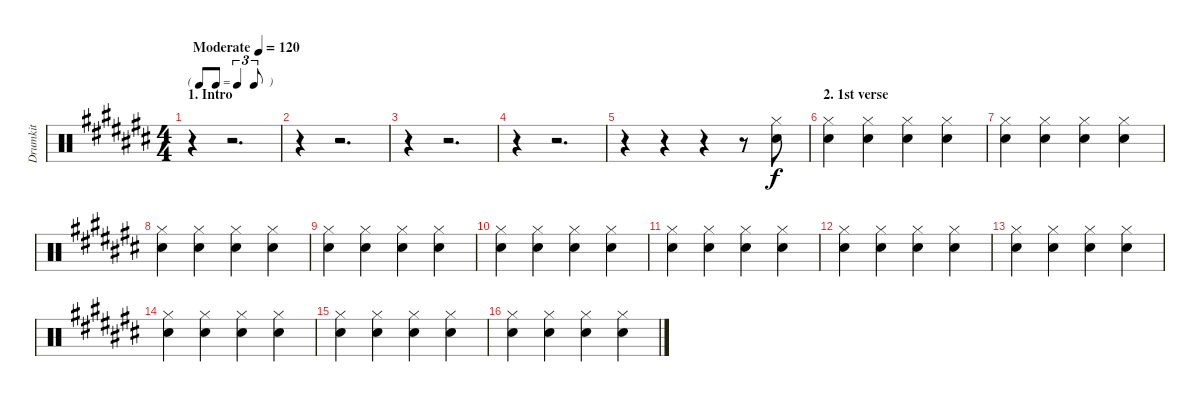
\track ("Drumkit" "Drumkit") {instrument percussion}
\staff {score}
\articulation defaults
\ts (4 4)
\tf triplet8th
\section ("" "1. Intro")
\tempo (120 "Moderate")
\clef neutral
\ks c#
r.4{dy f} r.2{d} |
r.4 r.2{d} |
r.4 r.2{d} |
r.4 r.2{d} |
r.4 r.4 r.4 r.8 ("Snare (hit) 2" "Hi-Hat (closed)").8 |
\section ("" "2. 1st verse")
("Snare (hit) 2" "Hi-Hat (closed)").4 ("Snare (hit) 2" "Hi-Hat (closed)").4 ("Snare (hit) 2" "Hi-Hat (closed)").4 ("Snare (hit) 2" "Hi-Hat (closed)").4 |
("Snare (hit) 2" "Hi-Hat (closed)").4 ("Snare (hit) 2" "Hi-Hat (closed)").4 ("Snare (hit) 2" "Hi-Hat (closed)").4 ("Snare (hit) 2" "Hi-Hat (closed)").4 |
("Snare (hit) 2" "Hi-Hat (closed)").4 ("Snare (hit) 2" "Hi-Hat (closed)").4 ("Snare (hit) 2" "Hi-Hat (closed)").4 ("Snare (hit) 2" "Hi-Hat (closed)").4 |
("Snare (hit) 2" "Hi-Hat (closed)").4 ("Snare (hit) 2" "Hi-Hat (closed)").4 ("Snare (hit) 2" "Hi-Hat (closed)").4 ("Snare (hit) 2" "Hi-Hat (closed)").4 |
("Snare (hit) 2" "Hi-Hat (closed)").4 ("Snare (hit) 2" "Hi-Hat (closed)").4 ("Snare (hit) 2" "Hi-Hat (closed)").4 ("Snare (hit) 2" "Hi-Hat (closed)").4 |
("Snare (hit) 2" "Hi-Hat (closed)").4 ("Snare (hit) 2" "Hi-Hat (closed)").4 ("Snare (hit) 2" "Hi-Hat (closed)").4 ("Snare (hit) 2" "Hi-Hat (closed)").4 |
("Snare (hit) 2" "Hi-Hat (closed)").4 ("Snare (hit) 2" "Hi-Hat (closed)").4 ("Snare (hit) 2" "Hi-Hat (closed)").4 ("Snare (hit) 2" "Hi-Hat (closed)").4 |
("Snare (hit) 2" "Hi-Hat (closed)").4 ("Snare (hit) 2" "Hi-Hat (closed)").4 ("Snare (hit) 2" "Hi-Hat (closed)").4 ("Snare (hit) 2" "Hi-Hat (closed)").4 |
("Snare (hit) 2" "Hi-Hat (closed)").4 ("Snare (hit) 2" "Hi-Hat (closed)").4 ("Snare (hit) 2" "Hi-Hat (closed)").4 ("Snare (hit) 2" "Hi-Hat (closed)").4 |
("Snare (hit) 2" "Hi-Hat (closed)").4 ("Snare (hit) 2" "Hi-Hat (closed)").4 ("Snare (hit) 2" "Hi-Hat (closed)").4 ("Snare (hit) 2" "Hi-Hat (closed)").4 |
("Snare (hit) 2" "Hi-Hat (closed)").4 ("Snare (hit) 2" "Hi-Hat (closed)").4 ("Snare (hit) 2" "Hi-Hat (closed)").4 ("Snare (hit) 2" "Hi-Hat (closed)").4
